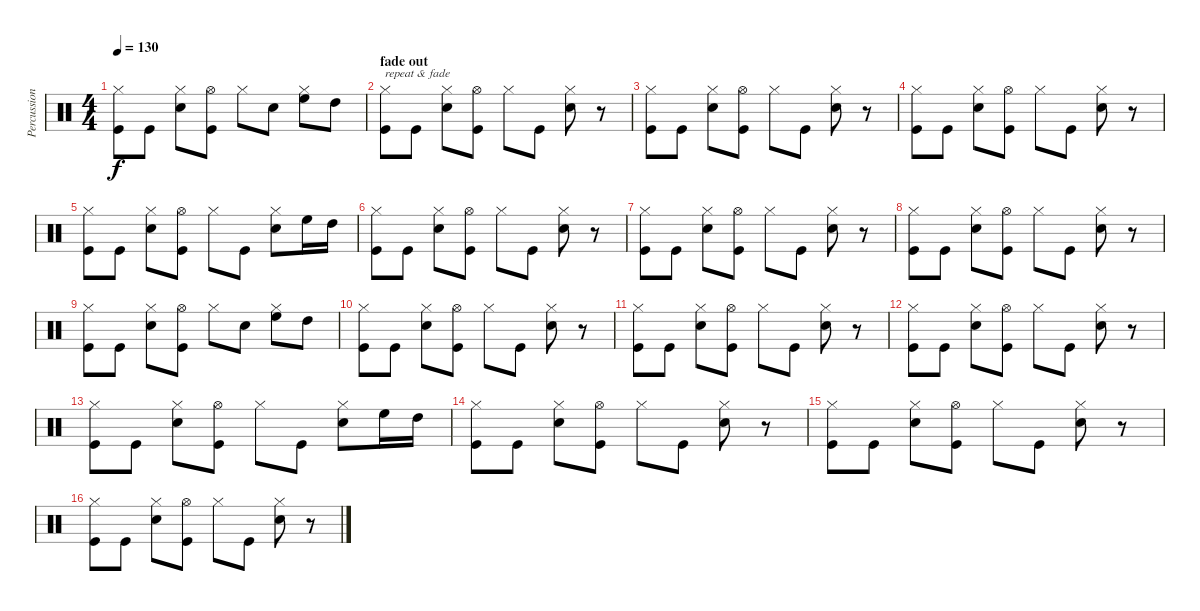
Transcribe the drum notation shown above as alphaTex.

\track ("Percussion" "Percussion") {instrument percussion}
\staff {score}
\articulation defaults
\ts (4 4)
\tempo 130
\clef neutral
\ks c
("Hi-Hat (closed)" "Kick (hit)").8{dy f} "Kick (hit)".8 ("Hi-Hat (closed)" "Snare (hit) 2").8 ("Hi-Hat (open)" "Kick (hit)").8 "Hi-Hat (closed)".8 "Snare (hit) 2".8 ("Hi-Hat (closed)" "High Floor Tom (hit)").8 "High Tom (hit)".8 |
\section ("" "fade out")
("Hi-Hat (closed)" "Kick (hit)").8{txt "repeat & fade"} "Kick (hit)".8 ("Hi-Hat (closed)" "Snare (hit) 2").8 ("Hi-Hat (open)" "Kick (hit)").8 "Hi-Hat (closed)".8 "Kick (hit)".8 ("Hi-Hat (closed)" "Snare (hit) 2").8 r.8 |
("Hi-Hat (closed)" "Kick (hit)").8 "Kick (hit)".8 ("Hi-Hat (closed)" "Snare (hit) 2").8 ("Hi-Hat (open)" "Kick (hit)").8 "Hi-Hat (closed)".8 "Kick (hit)".8 ("Hi-Hat (closed)" "Snare (hit) 2").8 r.8 |
("Hi-Hat (closed)" "Kick (hit)").8 "Kick (hit)".8 ("Hi-Hat (closed)" "Snare (hit) 2").8 ("Hi-Hat (open)" "Kick (hit)").8 "Hi-Hat (closed)".8 "Kick (hit)".8 ("Hi-Hat (closed)" "Snare (hit) 2").8 r.8 |
("Hi-Hat (closed)" "Kick (hit)").8 "Kick (hit)".8 ("Hi-Hat (closed)" "Snare (hit) 2").8 ("Hi-Hat (open)" "Kick (hit)").8 "Hi-Hat (closed)".8 "Kick (hit)".8 ("Hi-Hat (closed)" "Snare (hit) 2").8 "High Floor Tom (hit)".16 "High Tom (hit)".16 |
("Hi-Hat (closed)" "Kick (hit)").8 "Kick (hit)".8 ("Hi-Hat (closed)" "Snare (hit) 2").8 ("Hi-Hat (open)" "Kick (hit)").8 "Hi-Hat (closed)".8 "Kick (hit)".8 ("Hi-Hat (closed)" "Snare (hit) 2").8 r.8 |
("Hi-Hat (closed)" "Kick (hit)").8 "Kick (hit)".8 ("Hi-Hat (closed)" "Snare (hit) 2").8 ("Hi-Hat (open)" "Kick (hit)").8 "Hi-Hat (closed)".8 "Kick (hit)".8 ("Hi-Hat (closed)" "Snare (hit) 2").8 r.8 |
("Hi-Hat (closed)" "Kick (hit)").8 "Kick (hit)".8 ("Hi-Hat (closed)" "Snare (hit) 2").8 ("Hi-Hat (open)" "Kick (hit)").8 "Hi-Hat (closed)".8 "Kick (hit)".8 ("Hi-Hat (closed)" "Snare (hit) 2").8 r.8 |
("Hi-Hat (closed)" "Kick (hit)").8 "Kick (hit)".8 ("Hi-Hat (closed)" "Snare (hit) 2").8 ("Hi-Hat (open)" "Kick (hit)").8 "Hi-Hat (closed)".8 "Snare (hit) 2".8 ("Hi-Hat (closed)" "High Floor Tom (hit)").8 "High Tom (hit)".8 |
("Hi-Hat (closed)" "Kick (hit)").8{volume 13} "Kick (hit)".8 ("Hi-Hat (closed)" "Snare (hit) 2").8 ("Hi-Hat (open)" "Kick (hit)").8 "Hi-Hat (closed)".8 "Kick (hit)".8 ("Hi-Hat (closed)" "Snare (hit) 2").8 r.8 |
("Hi-Hat (closed)" "Kick (hit)").8{volume 11} "Kick (hit)".8 ("Hi-Hat (closed)" "Snare (hit) 2").8 ("Hi-Hat (open)" "Kick (hit)").8 "Hi-Hat (closed)".8 "Kick (hit)".8 ("Hi-Hat (closed)" "Snare (hit) 2").8 r.8 |
("Hi-Hat (closed)" "Kick (hit)").8{volume 9} "Kick (hit)".8 ("Hi-Hat (closed)" "Snare (hit) 2").8 ("Hi-Hat (open)" "Kick (hit)").8 "Hi-Hat (closed)".8 "Kick (hit)".8 ("Hi-Hat (closed)" "Snare (hit) 2").8 r.8 |
("Hi-Hat (closed)" "Kick (hit)").8{volume 7} "Kick (hit)".8 ("Hi-Hat (closed)" "Snare (hit) 2").8 ("Hi-Hat (open)" "Kick (hit)").8 "Hi-Hat (closed)".8 "Kick (hit)".8 ("Hi-Hat (closed)" "Snare (hit) 2").8 "High Floor Tom (hit)".16 "High Tom (hit)".16 |
("Hi-Hat (closed)" "Kick (hit)").8{volume 5} "Kick (hit)".8 ("Hi-Hat (closed)" "Snare (hit) 2").8 ("Hi-Hat (open)" "Kick (hit)").8 "Hi-Hat (closed)".8 "Kick (hit)".8 ("Hi-Hat (closed)" "Snare (hit) 2").8 r.8 |
("Hi-Hat (closed)" "Kick (hit)").8{volume 3} "Kick (hit)".8 ("Hi-Hat (closed)" "Snare (hit) 2").8 ("Hi-Hat (open)" "Kick (hit)").8 "Hi-Hat (closed)".8 "Kick (hit)".8 ("Hi-Hat (closed)" "Snare (hit) 2").8 r.8 |
("Hi-Hat (closed)" "Kick (hit)").8{volume 1} "Kick (hit)".8 ("Hi-Hat (closed)" "Snare (hit) 2").8 ("Hi-Hat (open)" "Kick (hit)").8 "Hi-Hat (closed)".8 "Kick (hit)".8 ("Hi-Hat (closed)" "Snare (hit) 2").8 r.8
